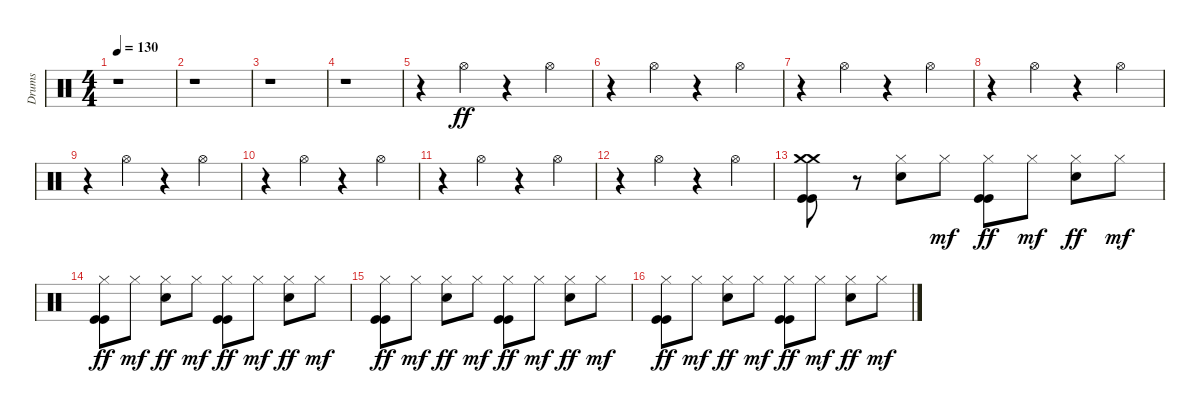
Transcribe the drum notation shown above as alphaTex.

\track ("Drums" "Drums") {instrument percussion}
\staff {score}
\articulation defaults
\ts (4 4)
\tempo 130
\clef neutral
\ks c
r.1{dy ff} |
r.1 |
r.1 |
r.1 |
r.4 "Hi-Hat (open)".4 r.4 "Hi-Hat (open)".4 |
r.4 "Hi-Hat (open)".4 r.4 "Hi-Hat (open)".4 |
r.4 "Hi-Hat (open)".4 r.4 "Hi-Hat (open)".4 |
r.4 "Hi-Hat (open)".4 r.4 "Hi-Hat (open)".4 |
r.4 "Hi-Hat (open)".4 r.4 "Hi-Hat (open)".4 |
r.4 "Hi-Hat (open)".4 r.4 "Hi-Hat (open)".4 |
r.4 "Hi-Hat (open)".4 r.4 "Hi-Hat (open)".4 |
r.4 "Hi-Hat (open)".4 r.4 "Hi-Hat (open)".4 |
("Crash medium (hit)" "Crash medium (hit)" "Kick (hit)" "Kick (hit)").8 r.8 ("Hi-Hat (closed)" "Snare (hit) 2").8 "Hi-Hat (closed)".8{dy mf} ("Hi-Hat (closed)" "Kick (hit)" "Kick (hit)").8{dy ff} "Hi-Hat (closed)".8{dy mf} ("Hi-Hat (closed)" "Snare (hit) 2").8{dy ff} "Hi-Hat (closed)".8{dy mf} |
("Hi-Hat (closed)" "Kick (hit)" "Kick (hit)").8{dy ff} "Hi-Hat (closed)".8{dy mf} ("Hi-Hat (closed)" "Snare (hit) 2").8{dy ff} "Hi-Hat (closed)".8{dy mf} ("Hi-Hat (closed)" "Kick (hit)" "Kick (hit)").8{dy ff} "Hi-Hat (closed)".8{dy mf} ("Hi-Hat (closed)" "Snare (hit) 2").8{dy ff} "Hi-Hat (closed)".8{dy mf} |
("Hi-Hat (closed)" "Kick (hit)" "Kick (hit)").8{dy ff} "Hi-Hat (closed)".8{dy mf} ("Hi-Hat (closed)" "Snare (hit) 2").8{dy ff} "Hi-Hat (closed)".8{dy mf} ("Hi-Hat (closed)" "Kick (hit)" "Kick (hit)").8{dy ff} "Hi-Hat (closed)".8{dy mf} ("Hi-Hat (closed)" "Snare (hit) 2").8{dy ff} "Hi-Hat (closed)".8{dy mf} |
("Hi-Hat (closed)" "Kick (hit)" "Kick (hit)").8{dy ff} "Hi-Hat (closed)".8{dy mf} ("Hi-Hat (closed)" "Snare (hit) 2").8{dy ff} "Hi-Hat (closed)".8{dy mf} ("Hi-Hat (closed)" "Kick (hit)" "Kick (hit)").8{dy ff} "Hi-Hat (closed)".8{dy mf} ("Hi-Hat (closed)" "Snare (hit) 2").8{dy ff} "Hi-Hat (closed)".8{dy mf}
